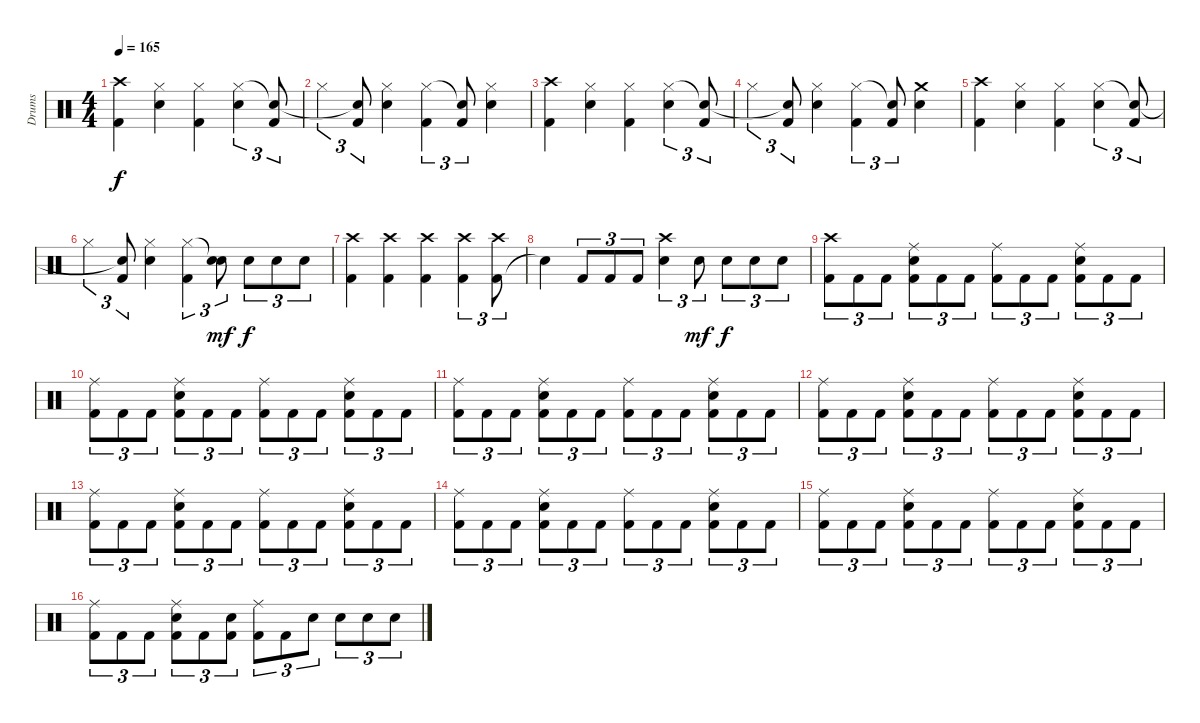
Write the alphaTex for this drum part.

\track ("Drums" "Drums") {instrument percussion}
\staff {score}
\articulation defaults
\ts (4 4)
\tempo 165
\clef neutral
\ks c
("Kick (hit) 2" "Crash high (hit)").4{dy f} ("Snare (hit) 2" "Hi-Hat (closed)").4 ("Kick (hit) 2" "Hi-Hat (closed)").4 ("Snare (hit) 2" "Hi-Hat (closed)").4{tu (3 2)} ("Kick (hit) 2" "Snare (hit)"{t}).8{tu (3 2)} |
"Hi-Hat (closed)".4{tu (3 2)} ("Kick (hit) 2" "Snare (hit)"{t}).8{tu (3 2)} ("Snare (hit) 2" "Hi-Hat (closed)").4 ("Kick (hit) 2" "Hi-Hat (closed)").4{tu (3 2)} ("Kick (hit) 2" "Snare (hit)"{t}).8{tu (3 2)} ("Snare (hit) 2" "Hi-Hat (closed)").4 |
("Kick (hit) 2" "Crash high (hit)").4 ("Snare (hit) 2" "Hi-Hat (closed)").4 ("Kick (hit) 2" "Hi-Hat (closed)").4 ("Snare (hit) 2" "Hi-Hat (closed)").4{tu (3 2)} ("Kick (hit) 2" "Snare (hit)"{t}).8{tu (3 2)} |
"Hi-Hat (closed)".4{tu (3 2)} ("Kick (hit) 2" "Snare (hit)"{t}).8{tu (3 2)} ("Snare (hit) 2" "Hi-Hat (closed)").4 ("Kick (hit) 2" "Hi-Hat (closed)").4{tu (3 2)} ("Kick (hit) 2" "Snare (hit)"{t}).8{tu (3 2)} ("Snare (hit) 2" "Crash medium (hit)").4 |
("Kick (hit) 2" "Crash high (hit)").4 ("Snare (hit) 2" "Hi-Hat (closed)").4 ("Kick (hit) 2" "Hi-Hat (closed)").4 ("Snare (hit) 2" "Hi-Hat (closed)").4{tu (3 2)} ("Kick (hit) 2" "Snare (hit)"{t}).8{tu (3 2)} |
"Hi-Hat (closed)".4{tu (3 2)} ("Kick (hit) 2" "Snare (hit)"{t}).8{tu (3 2)} ("Snare (hit) 2" "Hi-Hat (closed)").4 ("Kick (hit) 2" "Hi-Hat (closed)").4{tu (3 2)} ("Snare (hit) 2" "Snare (hit)"{t}).8{tu (3 2) dy mf} "Snare (hit) 2".8{tu (3 2) dy f} "Snare (hit) 2".8{tu (3 2)} "Snare (hit) 2".8{tu (3 2)} |
("Kick (hit) 2" "Crash high (hit)").4 ("Kick (hit) 2" "Crash high (hit)").4 ("Kick (hit) 2" "Crash high (hit)").4 ("Kick (hit) 2" "Crash high (hit)").4{tu (3 2)} ("Kick (hit) 2" "Crash high (hit)").8{tu (3 2)} |
"Snare (hit)"{t}.4 "Kick (hit) 2".8{tu (3 2)} "Kick (hit) 2".8{tu (3 2)} "Kick (hit) 2".8{tu (3 2)} ("Snare (hit) 2" "Crash high (hit)").4{tu (3 2)} "Snare (hit) 2".8{tu (3 2) dy mf} "Snare (hit) 2".8{tu (3 2) dy f} "Snare (hit) 2".8{tu (3 2)} "Snare (hit) 2".8{tu (3 2)} |
("Kick (hit) 2" "Crash high (hit)").8{tu (3 2)} "Kick (hit) 2".8{tu (3 2)} "Kick (hit) 2".8{tu (3 2)} ("Kick (hit) 2" "Snare (hit) 2" "Ride (middle)").8{tu (3 2)} "Kick (hit) 2".8{tu (3 2)} "Kick (hit) 2".8{tu (3 2)} ("Kick (hit) 2" "Ride (middle)").8{tu (3 2)} "Kick (hit) 2".8{tu (3 2)} "Kick (hit) 2".8{tu (3 2)} ("Kick (hit) 2" "Snare (hit) 2" "Ride (middle)").8{tu (3 2)} "Kick (hit) 2".8{tu (3 2)} "Kick (hit) 2".8{tu (3 2)} |
("Kick (hit) 2" "Ride (middle)").8{tu (3 2)} "Kick (hit) 2".8{tu (3 2)} "Kick (hit) 2".8{tu (3 2)} ("Kick (hit) 2" "Snare (hit) 2" "Ride (middle)").8{tu (3 2)} "Kick (hit) 2".8{tu (3 2)} "Kick (hit) 2".8{tu (3 2)} ("Kick (hit) 2" "Ride (middle)").8{tu (3 2)} "Kick (hit) 2".8{tu (3 2)} "Kick (hit) 2".8{tu (3 2)} ("Kick (hit) 2" "Snare (hit) 2" "Ride (middle)").8{tu (3 2)} "Kick (hit) 2".8{tu (3 2)} "Kick (hit) 2".8{tu (3 2)} |
("Kick (hit) 2" "Ride (middle)").8{tu (3 2)} "Kick (hit) 2".8{tu (3 2)} "Kick (hit) 2".8{tu (3 2)} ("Kick (hit) 2" "Snare (hit) 2" "Ride (middle)").8{tu (3 2)} "Kick (hit) 2".8{tu (3 2)} "Kick (hit) 2".8{tu (3 2)} ("Kick (hit) 2" "Ride (middle)").8{tu (3 2)} "Kick (hit) 2".8{tu (3 2)} "Kick (hit) 2".8{tu (3 2)} ("Kick (hit) 2" "Snare (hit) 2" "Ride (middle)").8{tu (3 2)} "Kick (hit) 2".8{tu (3 2)} "Kick (hit) 2".8{tu (3 2)} |
("Kick (hit) 2" "Ride (middle)").8{tu (3 2)} "Kick (hit) 2".8{tu (3 2)} "Kick (hit) 2".8{tu (3 2)} ("Kick (hit) 2" "Snare (hit) 2" "Ride (middle)").8{tu (3 2)} "Kick (hit) 2".8{tu (3 2)} "Kick (hit) 2".8{tu (3 2)} ("Kick (hit) 2" "Ride (middle)").8{tu (3 2)} "Kick (hit) 2".8{tu (3 2)} "Kick (hit) 2".8{tu (3 2)} ("Kick (hit) 2" "Snare (hit) 2" "Ride (middle)").8{tu (3 2)} "Kick (hit) 2".8{tu (3 2)} "Kick (hit) 2".8{tu (3 2)} |
("Kick (hit) 2" "Ride (middle)").8{tu (3 2)} "Kick (hit) 2".8{tu (3 2)} "Kick (hit) 2".8{tu (3 2)} ("Kick (hit) 2" "Snare (hit) 2" "Ride (middle)").8{tu (3 2)} "Kick (hit) 2".8{tu (3 2)} "Kick (hit) 2".8{tu (3 2)} ("Kick (hit) 2" "Ride (middle)").8{tu (3 2)} "Kick (hit) 2".8{tu (3 2)} "Kick (hit) 2".8{tu (3 2)} ("Kick (hit) 2" "Snare (hit) 2" "Ride (middle)").8{tu (3 2)} "Kick (hit) 2".8{tu (3 2)} "Kick (hit) 2".8{tu (3 2)} |
("Kick (hit) 2" "Ride (middle)").8{tu (3 2)} "Kick (hit) 2".8{tu (3 2)} "Kick (hit) 2".8{tu (3 2)} ("Kick (hit) 2" "Snare (hit) 2" "Ride (middle)").8{tu (3 2)} "Kick (hit) 2".8{tu (3 2)} "Kick (hit) 2".8{tu (3 2)} ("Kick (hit) 2" "Ride (middle)").8{tu (3 2)} "Kick (hit) 2".8{tu (3 2)} "Kick (hit) 2".8{tu (3 2)} ("Kick (hit) 2" "Snare (hit) 2" "Ride (middle)").8{tu (3 2)} "Kick (hit) 2".8{tu (3 2)} "Kick (hit) 2".8{tu (3 2)} |
("Kick (hit) 2" "Ride (middle)").8{tu (3 2)} "Kick (hit) 2".8{tu (3 2)} "Kick (hit) 2".8{tu (3 2)} ("Kick (hit) 2" "Snare (hit) 2" "Ride (middle)").8{tu (3 2)} "Kick (hit) 2".8{tu (3 2)} "Kick (hit) 2".8{tu (3 2)} ("Kick (hit) 2" "Ride (middle)").8{tu (3 2)} "Kick (hit) 2".8{tu (3 2)} "Kick (hit) 2".8{tu (3 2)} ("Kick (hit) 2" "Snare (hit) 2" "Ride (middle)").8{tu (3 2)} "Kick (hit) 2".8{tu (3 2)} "Kick (hit) 2".8{tu (3 2)} |
("Kick (hit) 2" "Ride (middle)").8{tu (3 2)} "Kick (hit) 2".8{tu (3 2)} "Kick (hit) 2".8{tu (3 2)} ("Kick (hit) 2" "Snare (hit) 2" "Ride (middle)").8{tu (3 2)} "Kick (hit) 2".8{tu (3 2)} ("Kick (hit) 2" "Snare (hit) 2").8{tu (3 2)} ("Kick (hit) 2" "Ride (middle)").8{tu (3 2)} "Kick (hit) 2".8{tu (3 2)} "Snare (hit) 2".8{tu (3 2)} "Snare (hit) 2".8{tu (3 2)} "Snare (hit) 2".8{tu (3 2)} "Snare (hit) 2".8{tu (3 2)}
